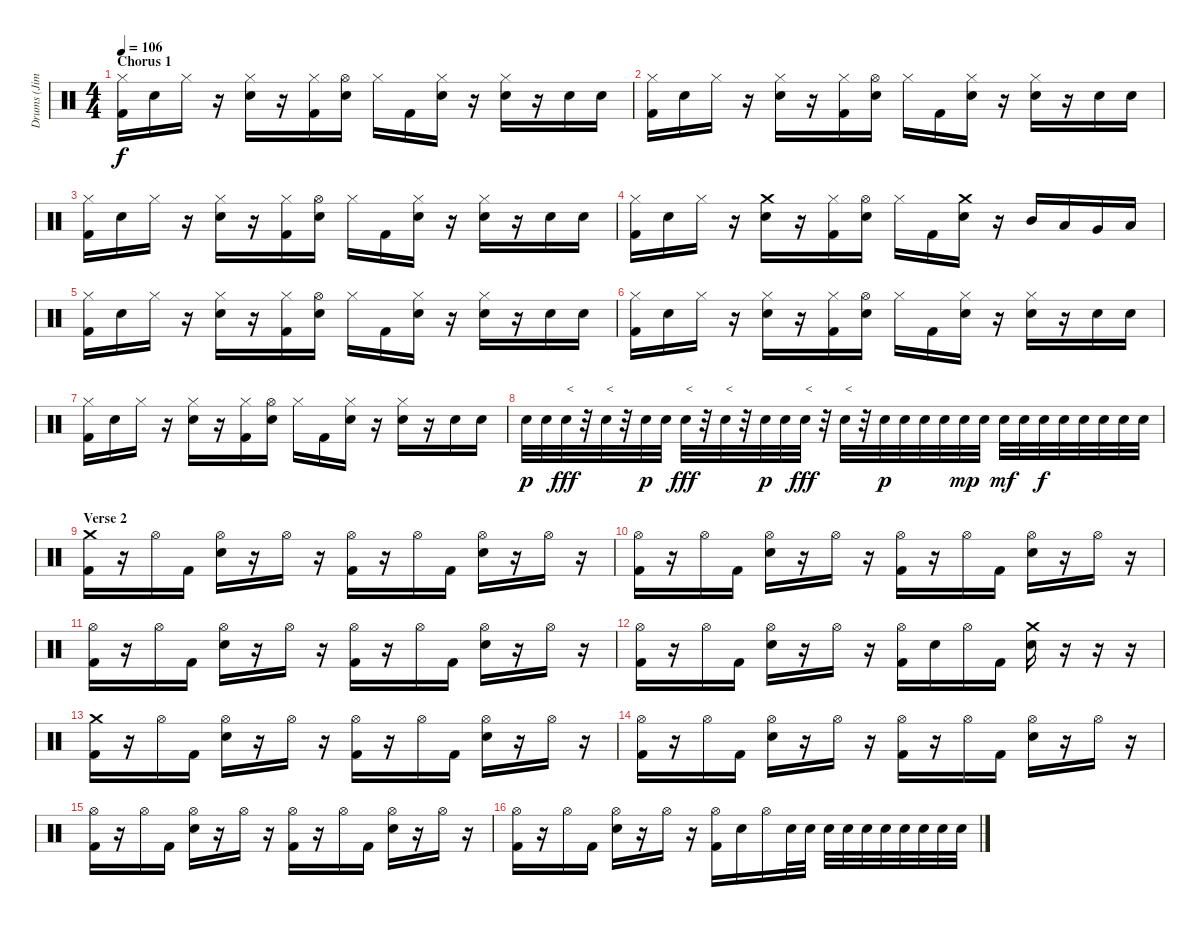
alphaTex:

\track ("Drums (Jimmy)" "Drums (Jim") {instrument percussion}
\staff {score}
\articulation defaults
\ts (4 4)
\section ("" "Chorus 1")
\tempo 106
\clef neutral
\ks c
("Hi-Hat (closed)" "Kick (hit) 2").16{dy f} "Snare (hit) 2".16 "Hi-Hat (closed)".16 r.16 ("Hi-Hat (closed)" "Snare (hit) 2").16 r.16 ("Hi-Hat (closed)" "Kick (hit) 2").16 ("Hi-Hat (open)" "Snare (hit) 2").16 "Hi-Hat (closed)".16 "Kick (hit) 2".16 ("Hi-Hat (closed)" "Snare (hit) 2").16 r.16 ("Hi-Hat (closed)" "Snare (hit) 2").16 r.16 "Snare (hit) 2".16 "Snare (hit) 2".16 |
("Hi-Hat (closed)" "Kick (hit) 2").16 "Snare (hit) 2".16 "Hi-Hat (closed)".16 r.16 ("Hi-Hat (closed)" "Snare (hit) 2").16 r.16 ("Hi-Hat (closed)" "Kick (hit) 2").16 ("Hi-Hat (open)" "Snare (hit) 2").16 "Hi-Hat (closed)".16 "Kick (hit) 2".16 ("Hi-Hat (closed)" "Snare (hit) 2").16 r.16 ("Hi-Hat (closed)" "Snare (hit) 2").16 r.16 "Snare (hit) 2".16 "Snare (hit) 2".16 |
("Hi-Hat (closed)" "Kick (hit) 2").16 "Snare (hit) 2".16 "Hi-Hat (closed)".16 r.16 ("Hi-Hat (closed)" "Snare (hit) 2").16 r.16 ("Hi-Hat (closed)" "Kick (hit) 2").16 ("Hi-Hat (open)" "Snare (hit) 2").16 "Hi-Hat (closed)".16 "Kick (hit) 2".16 ("Hi-Hat (closed)" "Snare (hit) 2").16 r.16 ("Hi-Hat (closed)" "Snare (hit) 2").16 r.16 "Snare (hit) 2".16 "Snare (hit) 2".16 |
("Hi-Hat (closed)" "Kick (hit) 2").16 "Snare (hit) 2".16 "Hi-Hat (closed)".16 r.16 ("Crash medium (hit)" "Snare (hit) 2").16 r.16 ("Hi-Hat (closed)" "Kick (hit) 2").16 ("Hi-Hat (open)" "Snare (hit) 2").16 "Hi-Hat (closed)".16 "Kick (hit) 2".16 ("Crash medium (hit)" "Snare (hit) 2").16 r.16 "Mid Tom (hit)".16 "Low Tom (hit)".16 "Very Low Tom (hit)".16 "Low Floor Tom (hit)".16 |
("Hi-Hat (closed)" "Kick (hit) 2").16 "Snare (hit) 2".16 "Hi-Hat (closed)".16 r.16 ("Hi-Hat (closed)" "Snare (hit) 2").16 r.16 ("Hi-Hat (closed)" "Kick (hit) 2").16 ("Hi-Hat (open)" "Snare (hit) 2").16 "Hi-Hat (closed)".16 "Kick (hit) 2".16 ("Hi-Hat (closed)" "Snare (hit) 2").16 r.16 ("Hi-Hat (closed)" "Snare (hit) 2").16 r.16 "Snare (hit) 2".16 "Snare (hit) 2".16 |
("Hi-Hat (closed)" "Kick (hit) 2").16 "Snare (hit) 2".16 "Hi-Hat (closed)".16 r.16 ("Hi-Hat (closed)" "Snare (hit) 2").16 r.16 ("Hi-Hat (closed)" "Kick (hit) 2").16 ("Hi-Hat (open)" "Snare (hit) 2").16 "Hi-Hat (closed)".16 "Kick (hit) 2".16 ("Hi-Hat (closed)" "Snare (hit) 2").16 r.16 ("Hi-Hat (closed)" "Snare (hit) 2").16 r.16 "Snare (hit) 2".16 "Snare (hit) 2".16 |
("Hi-Hat (closed)" "Kick (hit) 2").16 "Snare (hit) 2".16 "Hi-Hat (closed)".16 r.16 ("Hi-Hat (closed)" "Snare (hit) 2").16 r.16 ("Hi-Hat (closed)" "Kick (hit) 2").16 ("Hi-Hat (open)" "Snare (hit) 2").16 "Hi-Hat (closed)".16 "Kick (hit) 2".16 ("Hi-Hat (closed)" "Snare (hit) 2").16 r.16 ("Hi-Hat (closed)" "Snare (hit) 2").16 r.16 "Snare (hit) 2".16 "Snare (hit) 2".16 |
"Snare (hit) 2".32{dy p} "Snare (hit) 2".32 "Snare (hit) 2".32{txt "<" dy fff} r.32 "Snare (hit) 2".32{txt "<"} r.32 "Snare (hit) 2".32{dy p} "Snare (hit) 2".32 "Snare (hit) 2".32{txt "<" dy fff} r.32 "Snare (hit) 2".32{txt "<"} r.32 "Snare (hit) 2".32{dy p} "Snare (hit) 2".32 "Snare (hit) 2".32{txt "<" dy fff} r.32 "Snare (hit) 2".32{txt "<"} r.32 "Snare (hit) 2".32{dy p} "Snare (hit) 2".32 "Snare (hit) 2".32 "Snare (hit) 2".32 "Snare (hit) 2".32{dy mp} "Snare (hit) 2".32 "Snare (hit) 2".32{dy mf} "Snare (hit) 2".32 "Snare (hit) 2".32{dy f} "Snare (hit) 2".32 "Snare (hit) 2".32 "Snare (hit) 2".32 "Snare (hit) 2".32 "Snare (hit) 2".32 |
\section ("" "Verse 2")
("Crash medium (hit)" "Kick (hit) 2").16 r.16 "Hi-Hat (open)".16 "Kick (hit) 2".16 ("Hi-Hat (open)" "Snare (hit) 2").16 r.16 "Hi-Hat (open)".16 r.16 ("Hi-Hat (open)" "Kick (hit) 2").16 r.16 "Hi-Hat (open)".16 "Kick (hit) 2".16 ("Hi-Hat (open)" "Snare (hit) 2").16 r.16 "Hi-Hat (open)".16 r.16 |
("Hi-Hat (open)" "Kick (hit) 2").16 r.16 "Hi-Hat (open)".16 "Kick (hit) 2".16 ("Hi-Hat (open)" "Snare (hit) 2").16 r.16 "Hi-Hat (open)".16 r.16 ("Hi-Hat (open)" "Kick (hit) 2").16 r.16 "Hi-Hat (open)".16 "Kick (hit) 2".16 ("Hi-Hat (open)" "Snare (hit) 2").16 r.16 "Hi-Hat (open)".16 r.16 |
("Hi-Hat (open)" "Kick (hit) 2").16 r.16 "Hi-Hat (open)".16 "Kick (hit) 2".16 ("Hi-Hat (open)" "Snare (hit) 2").16 r.16 "Hi-Hat (open)".16 r.16 ("Hi-Hat (open)" "Kick (hit) 2").16 r.16 "Hi-Hat (open)".16 "Kick (hit) 2".16 ("Hi-Hat (open)" "Snare (hit) 2").16 r.16 "Hi-Hat (open)".16 r.16 |
("Hi-Hat (open)" "Kick (hit) 2").16 r.16 "Hi-Hat (open)".16 "Kick (hit) 2".16 ("Hi-Hat (open)" "Snare (hit) 2").16 r.16 "Hi-Hat (open)".16 r.16 ("Hi-Hat (open)" "Kick (hit) 2").16 "Snare (hit) 2".16 "Hi-Hat (open)".16 "Kick (hit) 2".16 ("Crash medium (hit)" "Snare (hit) 2").16 r.16 r.16 r.16 |
("Crash medium (hit)" "Kick (hit) 2").16 r.16 "Hi-Hat (open)".16 "Kick (hit) 2".16 ("Hi-Hat (open)" "Snare (hit) 2").16 r.16 "Hi-Hat (open)".16 r.16 ("Hi-Hat (open)" "Kick (hit) 2").16 r.16 "Hi-Hat (open)".16 "Kick (hit) 2".16 ("Hi-Hat (open)" "Snare (hit) 2").16 r.16 "Hi-Hat (open)".16 r.16 |
("Hi-Hat (open)" "Kick (hit) 2").16 r.16 "Hi-Hat (open)".16 "Kick (hit) 2".16 ("Hi-Hat (open)" "Snare (hit) 2").16 r.16 "Hi-Hat (open)".16 r.16 ("Hi-Hat (open)" "Kick (hit) 2").16 r.16 "Hi-Hat (open)".16 "Kick (hit) 2".16 ("Hi-Hat (open)" "Snare (hit) 2").16 r.16 "Hi-Hat (open)".16 r.16 |
("Hi-Hat (open)" "Kick (hit) 2").16 r.16 "Hi-Hat (open)".16 "Kick (hit) 2".16 ("Hi-Hat (open)" "Snare (hit) 2").16 r.16 "Hi-Hat (open)".16 r.16 ("Hi-Hat (open)" "Kick (hit) 2").16 r.16 "Hi-Hat (open)".16 "Kick (hit) 2".16 ("Hi-Hat (open)" "Snare (hit) 2").16 r.16 "Hi-Hat (open)".16 r.16 |
("Hi-Hat (open)" "Kick (hit) 2").16 r.16 "Hi-Hat (open)".16 "Kick (hit) 2".16 ("Hi-Hat (open)" "Snare (hit) 2").16 r.16 "Hi-Hat (open)".16 r.16 ("Hi-Hat (open)" "Kick (hit) 2").16 "Snare (hit) 2".16 "Hi-Hat (open)".16 "Snare (hit) 2".32 "Snare (hit) 2".32 "Snare (hit) 2".32 "Snare (hit) 2".32 "Snare (hit) 2".32 "Snare (hit) 2".32 "Snare (hit) 2".32 "Snare (hit) 2".32 "Snare (hit) 2".32 "Snare (hit) 2".32
